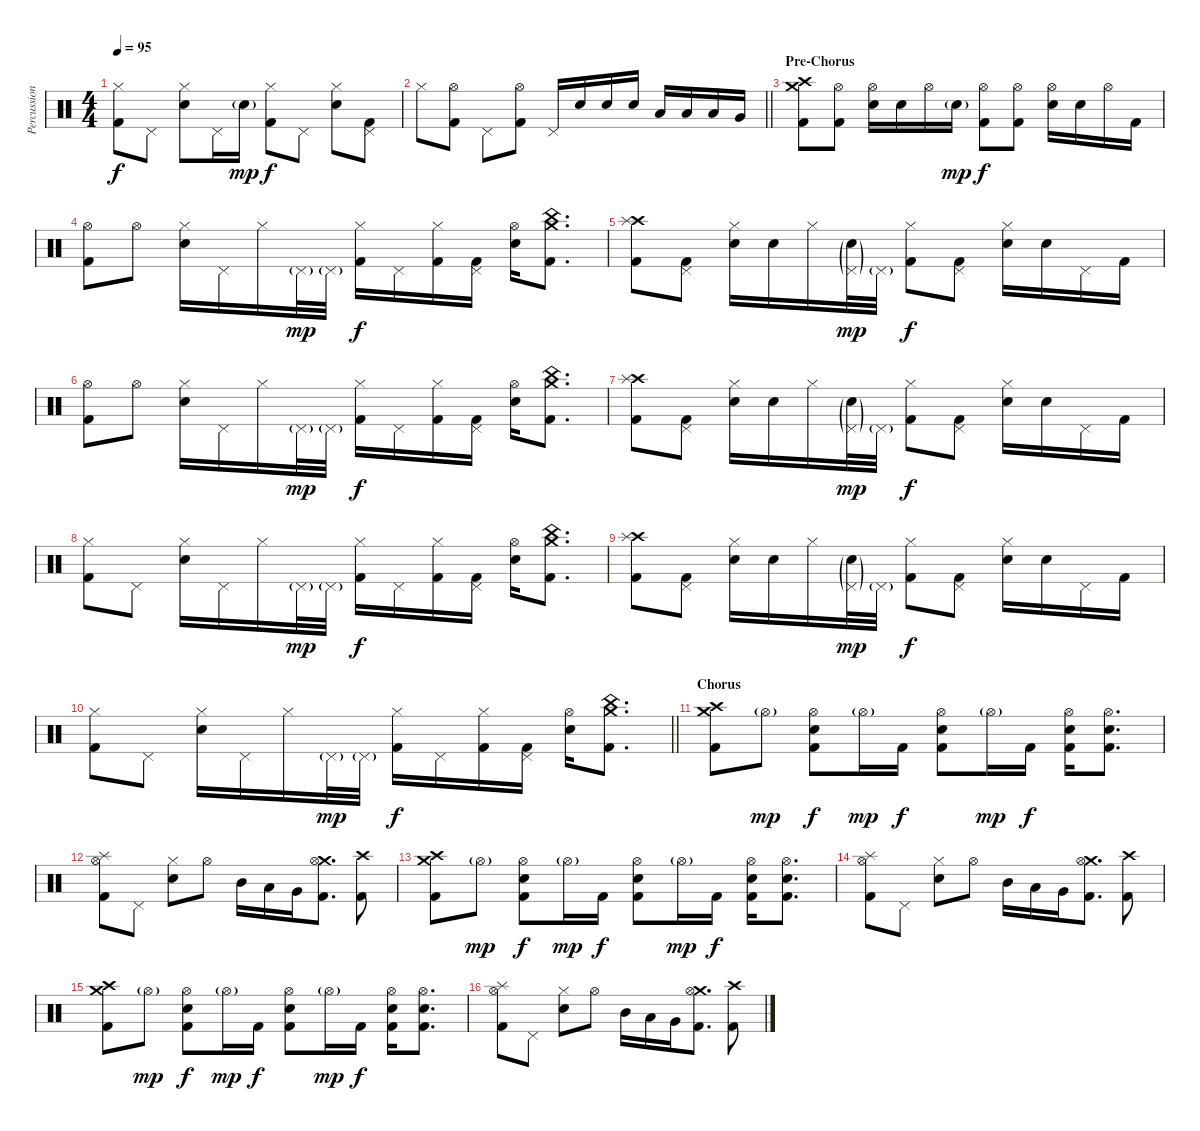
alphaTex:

\track ("Percussion" "Percussion") {instrument percussion}
\staff {score}
\articulation defaults
\ts (4 4)
\tempo 95
\clef neutral
\ks c
("Hi-Hat (closed)" "Kick (hit) 2").8{dy f} "Pedal Hi-Hat (hit)".8 ("Snare (hit) 2" "Hi-Hat (closed)").8 "Pedal Hi-Hat (hit)".16 "Snare (hit) 2"{g}.16{dy mp} ("Hi-Hat (closed)" "Kick (hit) 2").8{dy f} "Pedal Hi-Hat (hit)".8 ("Snare (hit) 2" "Hi-Hat (closed)").8 ("Pedal Hi-Hat (hit)" "Kick (hit) 2").8 |
\barLineRight lightlight "Hi-Hat (closed)".8
("Hi-Hat (open)" "Kick (hit) 2").8 "Pedal Hi-Hat (hit)".8 ("Hi-Hat (open)" "Kick (hit) 2").8 "Pedal Hi-Hat (hit)".16 "Snare (hit) 2".16 "Snare (hit) 2".16 "Snare (hit) 2".16 "Low Tom (hit)".16 "Low Tom (hit)".16 "Low Tom (hit)".16 "Very Low Tom (hit)".16 |
\section ("" "Pre-Chorus")
("Crash high (hit)" "Crash medium (hit)" "Kick (hit) 2").8 ("Hi-Hat (open)" "Kick (hit) 2").8 ("Snare (hit) 2" "Hi-Hat (open)").16 "Snare (hit) 2".16 "Hi-Hat (open)".16 "Snare (hit) 2"{g}.16{dy mp} ("Hi-Hat (open)" "Kick (hit) 2").8{dy f} ("Hi-Hat (open)" "Kick (hit) 2").8 ("Snare (hit) 2" "Hi-Hat (open)").16 "Snare (hit) 2".16 "Hi-Hat (open)".16 "Kick (hit) 2".16 |
("Hi-Hat (open)" "Kick (hit) 2").8 "Hi-Hat (open)".8 ("Snare (hit) 2" "Hi-Hat (closed)").16 "Pedal Hi-Hat (hit)".16 "Hi-Hat (closed)".16 "Pedal Hi-Hat (hit)"{g}.32{dy mp} "Pedal Hi-Hat (hit)"{g}.32 ("Hi-Hat (closed)" "Kick (hit) 2").16{dy f} "Pedal Hi-Hat (hit)".16 ("Hi-Hat (closed)" "Kick (hit) 2").16 ("Pedal Hi-Hat (hit)" "Kick (hit) 2").16 ("Snare (hit) 2" "Hi-Hat (open)").16 ("Crash medium (hit)" "China (hit)" "Kick (hit) 2").8{d} |
("Crash high (hit)" "Splash (hit)" "Kick (hit) 2").8 ("Pedal Hi-Hat (hit)" "Kick (hit) 2").8 ("Snare (hit) 2" "Hi-Hat (closed)").16 "Snare (hit) 2".16 "Hi-Hat (closed)".16 ("Snare (hit) 2"{g} "Pedal Hi-Hat (hit)"{g}).32{dy mp} "Pedal Hi-Hat (hit)"{g}.32 ("Hi-Hat (closed)" "Kick (hit) 2").8{dy f} ("Pedal Hi-Hat (hit)" "Kick (hit) 2").8 ("Snare (hit) 2" "Hi-Hat (closed)").16 "Snare (hit) 2".16 "Pedal Hi-Hat (hit)".16 "Kick (hit) 2".16 |
("Hi-Hat (open)" "Kick (hit) 2").8 "Hi-Hat (open)".8 ("Snare (hit) 2" "Hi-Hat (closed)").16 "Pedal Hi-Hat (hit)".16 "Hi-Hat (closed)".16 "Pedal Hi-Hat (hit)"{g}.32{dy mp} "Pedal Hi-Hat (hit)"{g}.32 ("Hi-Hat (closed)" "Kick (hit) 2").16{dy f} "Pedal Hi-Hat (hit)".16 ("Hi-Hat (closed)" "Kick (hit) 2").16 ("Pedal Hi-Hat (hit)" "Kick (hit) 2").16 ("Snare (hit) 2" "Hi-Hat (open)").16 ("Crash medium (hit)" "China (hit)" "Kick (hit) 2").8{d} |
("Crash high (hit)" "Splash (hit)" "Kick (hit) 2").8 ("Pedal Hi-Hat (hit)" "Kick (hit) 2").8 ("Snare (hit) 2" "Hi-Hat (closed)").16 "Snare (hit) 2".16 "Hi-Hat (closed)".16 ("Snare (hit) 2"{g} "Pedal Hi-Hat (hit)"{g}).32{dy mp} "Pedal Hi-Hat (hit)"{g}.32 ("Hi-Hat (closed)" "Kick (hit) 2").8{dy f} ("Pedal Hi-Hat (hit)" "Kick (hit) 2").8 ("Snare (hit) 2" "Hi-Hat (closed)").16 "Snare (hit) 2".16 "Pedal Hi-Hat (hit)".16 "Kick (hit) 2".16 |
("Hi-Hat (closed)" "Kick (hit) 2").8 "Pedal Hi-Hat (hit)".8 ("Snare (hit) 2" "Hi-Hat (closed)").16 "Pedal Hi-Hat (hit)".16 "Hi-Hat (closed)".16 "Pedal Hi-Hat (hit)"{g}.32{dy mp} "Pedal Hi-Hat (hit)"{g}.32 ("Hi-Hat (closed)" "Kick (hit) 2").16{dy f} "Pedal Hi-Hat (hit)".16 ("Hi-Hat (closed)" "Kick (hit) 2").16 ("Pedal Hi-Hat (hit)" "Kick (hit) 2").16 ("Snare (hit) 2" "Hi-Hat (open)").16 ("Crash medium (hit)" "China (hit)" "Kick (hit) 2").8{d} |
("Crash high (hit)" "Splash (hit)" "Kick (hit) 2").8 ("Pedal Hi-Hat (hit)" "Kick (hit) 2").8 ("Snare (hit) 2" "Hi-Hat (closed)").16 "Snare (hit) 2".16 "Hi-Hat (closed)".16 ("Snare (hit) 2"{g} "Pedal Hi-Hat (hit)"{g}).32{dy mp} "Pedal Hi-Hat (hit)"{g}.32 ("Hi-Hat (closed)" "Kick (hit) 2").8{dy f} ("Pedal Hi-Hat (hit)" "Kick (hit) 2").8 ("Snare (hit) 2" "Hi-Hat (closed)").16 "Snare (hit) 2".16 "Pedal Hi-Hat (hit)".16 "Kick (hit) 2".16 |
\barLineRight lightlight
("Hi-Hat (closed)" "Kick (hit) 2").8 "Pedal Hi-Hat (hit)".8 ("Snare (hit) 2" "Hi-Hat (closed)").16 "Pedal Hi-Hat (hit)".16 "Hi-Hat (closed)".16 "Pedal Hi-Hat (hit)"{g}.32{dy mp} "Pedal Hi-Hat (hit)"{g}.32 ("Hi-Hat (closed)" "Kick (hit) 2").16{dy f} "Pedal Hi-Hat (hit)".16 ("Hi-Hat (closed)" "Kick (hit) 2").16 ("Pedal Hi-Hat (hit)" "Kick (hit) 2").16 ("Snare (hit) 2" "Hi-Hat (open)").16 ("Crash medium (hit)" "China (hit)" "Kick (hit) 2").8{d} |
\section ("" "Chorus")
("Crash medium (hit)" "Crash high (hit)" "Kick (hit) 2").8 "Hi-Hat (open)"{g}.8{dy mp} ("Snare (hit) 2" "Hi-Hat (open)" "Kick (hit) 2").8{dy f} "Hi-Hat (open)"{g}.16{dy mp} "Kick (hit) 2".16{dy f} ("Snare (hit) 2" "Hi-Hat (open)" "Kick (hit) 2").8 "Hi-Hat (open)"{g}.16{dy mp} "Kick (hit) 2".16{dy f} ("Snare (hit) 2" "Hi-Hat (open)" "Kick (hit) 2").16 ("Snare (hit) 2" "Hi-Hat (open)" "Kick (hit) 2").8{d} |
("Splash (hit)" "Hi-Hat (open)" "Kick (hit) 2").8 "Pedal Hi-Hat (hit)".8 ("Snare (hit) 2" "Hi-Hat (closed)").8 "Hi-Hat (open)".8 "Mid Tom (hit)".16 "Low Tom (hit)".16 "Very Low Tom (hit)".16 ("Crash medium (hit)" "Hi-Hat (open)" "Kick (hit) 2").8{d} ("Crash high (hit)" "Kick (hit) 2").8 |
("Crash medium (hit)" "Crash high (hit)" "Kick (hit) 2").8 "Hi-Hat (open)"{g}.8{dy mp} ("Snare (hit) 2" "Hi-Hat (open)" "Kick (hit) 2").8{dy f} "Hi-Hat (open)"{g}.16{dy mp} "Kick (hit) 2".16{dy f} ("Snare (hit) 2" "Hi-Hat (open)" "Kick (hit) 2").8 "Hi-Hat (open)"{g}.16{dy mp} "Kick (hit) 2".16{dy f} ("Snare (hit) 2" "Hi-Hat (open)" "Kick (hit) 2").16 ("Snare (hit) 2" "Hi-Hat (open)" "Kick (hit) 2").8{d} |
("Splash (hit)" "Hi-Hat (open)" "Kick (hit) 2").8 "Pedal Hi-Hat (hit)".8 ("Snare (hit) 2" "Hi-Hat (closed)").8 "Hi-Hat (open)".8 "Mid Tom (hit)".16 "Low Tom (hit)".16 "Very Low Tom (hit)".16 ("Crash medium (hit)" "Hi-Hat (open)" "Kick (hit) 2").8{d} ("Crash high (hit)" "Kick (hit) 2").8 |
("Crash medium (hit)" "Crash high (hit)" "Kick (hit) 2").8 "Hi-Hat (open)"{g}.8{dy mp} ("Snare (hit) 2" "Hi-Hat (open)" "Kick (hit) 2").8{dy f} "Hi-Hat (open)"{g}.16{dy mp} "Kick (hit) 2".16{dy f} ("Snare (hit) 2" "Hi-Hat (open)" "Kick (hit) 2").8 "Hi-Hat (open)"{g}.16{dy mp} "Kick (hit) 2".16{dy f} ("Snare (hit) 2" "Hi-Hat (open)" "Kick (hit) 2").16 ("Snare (hit) 2" "Hi-Hat (open)" "Kick (hit) 2").8{d} |
("Splash (hit)" "Hi-Hat (open)" "Kick (hit) 2").8 "Pedal Hi-Hat (hit)".8 ("Snare (hit) 2" "Hi-Hat (closed)").8 "Hi-Hat (open)".8 "Mid Tom (hit)".16 "Low Tom (hit)".16 "Very Low Tom (hit)".16 ("Crash medium (hit)" "Hi-Hat (open)" "Kick (hit) 2").8{d} ("Crash high (hit)" "Kick (hit) 2").8
